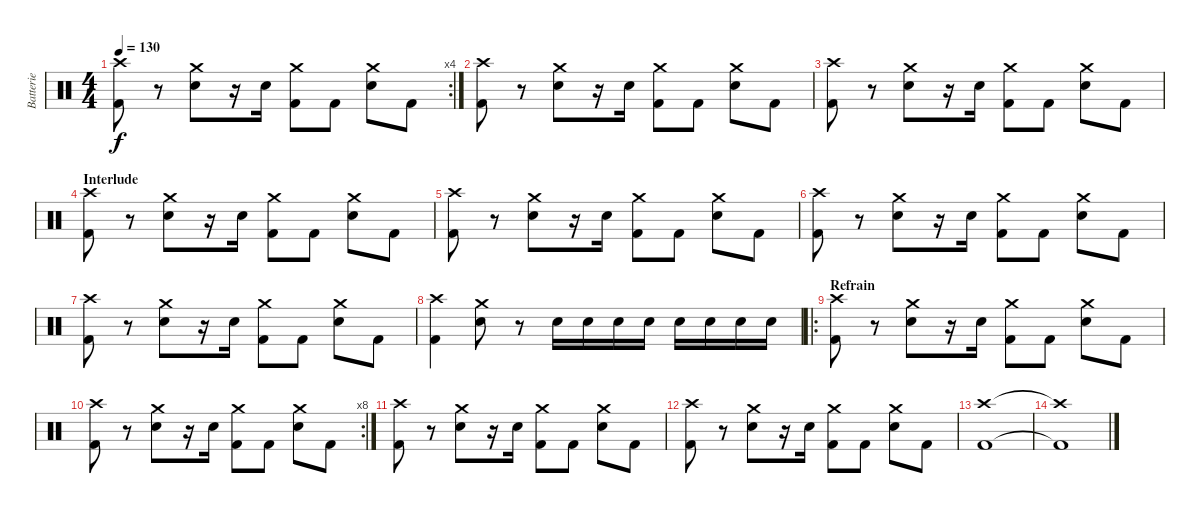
\track ("Batterie" "Batterie") {instrument percussion}
\staff {score}
\articulation defaults
\rc 4
\ts (4 4)
\tempo 130
\clef neutral
\ks c
("Crash high (hit)" "Kick (hit) 2").8{dy f} r.8 ("Crash medium (hit)" "Electric Snare (hit)").8 r.16 "Electric Snare (hit)".16 ("Crash medium (hit)" "Kick (hit) 2").8 "Kick (hit) 2".8 ("Crash medium (hit)" "Electric Snare (hit)").8 "Kick (hit) 2".8 |
("Crash high (hit)" "Kick (hit) 2").8 r.8 ("Crash medium (hit)" "Electric Snare (hit)").8 r.16 "Electric Snare (hit)".16 ("Crash medium (hit)" "Kick (hit) 2").8 "Kick (hit) 2".8 ("Crash medium (hit)" "Electric Snare (hit)").8 "Kick (hit) 2".8 |
("Crash high (hit)" "Kick (hit) 2").8 r.8 ("Crash medium (hit)" "Electric Snare (hit)").8 r.16 "Electric Snare (hit)".16 ("Crash medium (hit)" "Kick (hit) 2").8 "Kick (hit) 2".8 ("Crash medium (hit)" "Electric Snare (hit)").8 "Kick (hit) 2".8 |
\section ("" "Interlude")
("Crash high (hit)" "Kick (hit) 2").8 r.8 ("Crash medium (hit)" "Electric Snare (hit)").8 r.16 "Electric Snare (hit)".16 ("Crash medium (hit)" "Kick (hit) 2").8 "Kick (hit) 2".8 ("Crash medium (hit)" "Electric Snare (hit)").8 "Kick (hit) 2".8 |
("Crash high (hit)" "Kick (hit) 2").8 r.8 ("Crash medium (hit)" "Electric Snare (hit)").8 r.16 "Electric Snare (hit)".16 ("Crash medium (hit)" "Kick (hit) 2").8 "Kick (hit) 2".8 ("Crash medium (hit)" "Electric Snare (hit)").8 "Kick (hit) 2".8 |
("Crash high (hit)" "Kick (hit) 2").8 r.8 ("Crash medium (hit)" "Electric Snare (hit)").8 r.16 "Electric Snare (hit)".16 ("Crash medium (hit)" "Kick (hit) 2").8 "Kick (hit) 2".8 ("Crash medium (hit)" "Electric Snare (hit)").8 "Kick (hit) 2".8 |
("Crash high (hit)" "Kick (hit) 2").8 r.8 ("Crash medium (hit)" "Electric Snare (hit)").8 r.16 "Electric Snare (hit)".16 ("Crash medium (hit)" "Kick (hit) 2").8 "Kick (hit) 2".8 ("Crash medium (hit)" "Electric Snare (hit)").8 "Kick (hit) 2".8 |
("Crash high (hit)" "Kick (hit) 2").4 ("Crash medium (hit)" "Electric Snare (hit)").8 r.8 "Electric Snare (hit)".16 "Electric Snare (hit)".16 "Electric Snare (hit)".16 "Electric Snare (hit)".16 "Electric Snare (hit)".16 "Electric Snare (hit)".16 "Electric Snare (hit)".16 "Electric Snare (hit)".16 |
\ro
\section ("" "Refrain")
("Crash high (hit)" "Kick (hit) 2").8 r.8 ("Crash medium (hit)" "Electric Snare (hit)").8 r.16 "Electric Snare (hit)".16 ("Crash medium (hit)" "Kick (hit) 2").8 "Kick (hit) 2".8 ("Crash medium (hit)" "Electric Snare (hit)").8 "Kick (hit) 2".8 |
\rc 8
("Crash high (hit)" "Kick (hit) 2").8 r.8 ("Crash medium (hit)" "Electric Snare (hit)").8 r.16 "Electric Snare (hit)".16 ("Crash medium (hit)" "Kick (hit) 2").8 "Kick (hit) 2".8 ("Crash medium (hit)" "Electric Snare (hit)").8 "Kick (hit) 2".8 |
("Crash high (hit)" "Kick (hit) 2").8 r.8 ("Crash medium (hit)" "Electric Snare (hit)").8 r.16 "Electric Snare (hit)".16 ("Crash medium (hit)" "Kick (hit) 2").8 "Kick (hit) 2".8 ("Crash medium (hit)" "Electric Snare (hit)").8 "Kick (hit) 2".8 |
("Crash high (hit)" "Kick (hit) 2").8 r.8 ("Crash medium (hit)" "Electric Snare (hit)").8 r.16 "Electric Snare (hit)".16 ("Crash medium (hit)" "Kick (hit) 2").8 "Kick (hit) 2".8 ("Crash medium (hit)" "Electric Snare (hit)").8 "Kick (hit) 2".8 |
("Crash high (hit)" "Kick (hit) 2").1 |
("Crash high (hit)"{t} "Kick (hit) 2"{t}).1
